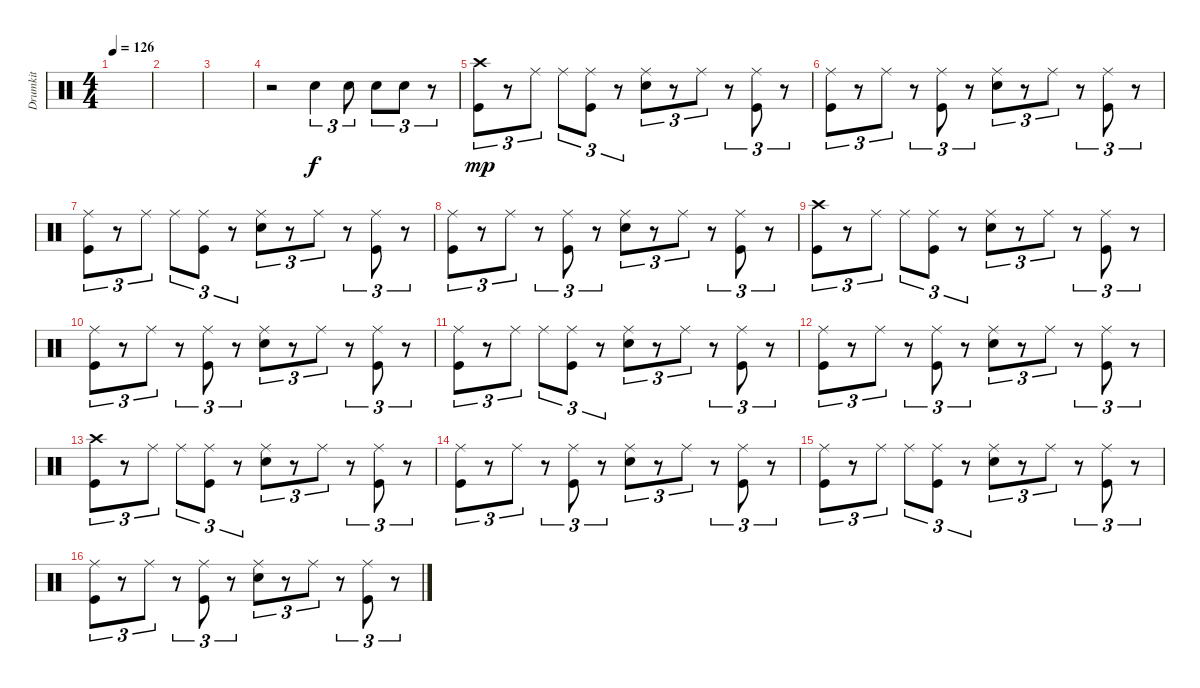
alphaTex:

\track ("Drumkit" "Drumkit") {instrument percussion}
\staff {score}
\articulation defaults
\ts (4 4)
\tempo 126
\clef neutral
\ks c
|
|
|
r.2 "Snare (hit) 2".4{tu (3 2)} "Snare (hit) 2".8{tu (3 2)} "Snare (hit) 2".8{tu (3 2)} "Snare (hit) 2".8{tu (3 2)} r.8{tu (3 2)} |
("Crash high (hit)" "Kick (hit)").8{tu (3 2) dy mp} r.8{tu (3 2)} "Ride (middle)".8{tu (3 2)} "Ride (middle)".8{tu (3 2)} ("Kick (hit)" "Ride (middle)").8{tu (3 2)} r.8{tu (3 2)} ("Snare (hit) 2" "Ride (middle)").8{tu (3 2)} r.8{tu (3 2)} "Ride (middle)".8{tu (3 2)} r.8{tu (3 2)} ("Kick (hit)" "Ride (middle)").8{tu (3 2)} r.8{tu (3 2)} |
("Ride (middle)" "Kick (hit)").8{tu (3 2)} r.8{tu (3 2)} "Ride (middle)".8{tu (3 2)} r.8{tu (3 2)} ("Ride (middle)" "Kick (hit)").8{tu (3 2)} r.8{tu (3 2)} ("Ride (middle)" "Snare (hit) 2").8{tu (3 2)} r.8{tu (3 2)} "Ride (middle)".8{tu (3 2)} r.8{tu (3 2)} ("Ride (middle)" "Kick (hit)").8{tu (3 2)} r.8{tu (3 2)} |
("Ride (middle)" "Kick (hit)").8{tu (3 2)} r.8{tu (3 2)} "Ride (middle)".8{tu (3 2)} "Ride (middle)".8{tu (3 2)} ("Kick (hit)" "Ride (middle)").8{tu (3 2)} r.8{tu (3 2)} ("Snare (hit) 2" "Ride (middle)").8{tu (3 2)} r.8{tu (3 2)} "Ride (middle)".8{tu (3 2)} r.8{tu (3 2)} ("Kick (hit)" "Ride (middle)").8{tu (3 2)} r.8{tu (3 2)} |
("Ride (middle)" "Kick (hit)").8{tu (3 2)} r.8{tu (3 2)} "Ride (middle)".8{tu (3 2)} r.8{tu (3 2)} ("Ride (middle)" "Kick (hit)").8{tu (3 2)} r.8{tu (3 2)} ("Ride (middle)" "Snare (hit) 2").8{tu (3 2)} r.8{tu (3 2)} "Ride (middle)".8{tu (3 2)} r.8{tu (3 2)} ("Ride (middle)" "Kick (hit)").8{tu (3 2)} r.8{tu (3 2)} |
("Crash high (hit)" "Kick (hit)").8{tu (3 2)} r.8{tu (3 2)} "Ride (middle)".8{tu (3 2)} "Ride (middle)".8{tu (3 2)} ("Kick (hit)" "Ride (middle)").8{tu (3 2)} r.8{tu (3 2)} ("Snare (hit) 2" "Ride (middle)").8{tu (3 2)} r.8{tu (3 2)} "Ride (middle)".8{tu (3 2)} r.8{tu (3 2)} ("Kick (hit)" "Ride (middle)").8{tu (3 2)} r.8{tu (3 2)} |
("Ride (middle)" "Kick (hit)").8{tu (3 2)} r.8{tu (3 2)} "Ride (middle)".8{tu (3 2)} r.8{tu (3 2)} ("Ride (middle)" "Kick (hit)").8{tu (3 2)} r.8{tu (3 2)} ("Ride (middle)" "Snare (hit) 2").8{tu (3 2)} r.8{tu (3 2)} "Ride (middle)".8{tu (3 2)} r.8{tu (3 2)} ("Ride (middle)" "Kick (hit)").8{tu (3 2)} r.8{tu (3 2)} |
("Ride (middle)" "Kick (hit)").8{tu (3 2)} r.8{tu (3 2)} "Ride (middle)".8{tu (3 2)} "Ride (middle)".8{tu (3 2)} ("Kick (hit)" "Ride (middle)").8{tu (3 2)} r.8{tu (3 2)} ("Snare (hit) 2" "Ride (middle)").8{tu (3 2)} r.8{tu (3 2)} "Ride (middle)".8{tu (3 2)} r.8{tu (3 2)} ("Kick (hit)" "Ride (middle)").8{tu (3 2)} r.8{tu (3 2)} |
("Ride (middle)" "Kick (hit)").8{tu (3 2)} r.8{tu (3 2)} "Ride (middle)".8{tu (3 2)} r.8{tu (3 2)} ("Ride (middle)" "Kick (hit)").8{tu (3 2)} r.8{tu (3 2)} ("Ride (middle)" "Snare (hit) 2").8{tu (3 2)} r.8{tu (3 2)} "Ride (middle)".8{tu (3 2)} r.8{tu (3 2)} ("Ride (middle)" "Kick (hit)").8{tu (3 2)} r.8{tu (3 2)} |
("Crash high (hit)" "Kick (hit)").8{tu (3 2)} r.8{tu (3 2)} "Ride (middle)".8{tu (3 2)} "Ride (middle)".8{tu (3 2)} ("Kick (hit)" "Ride (middle)").8{tu (3 2)} r.8{tu (3 2)} ("Snare (hit) 2" "Ride (middle)").8{tu (3 2)} r.8{tu (3 2)} "Ride (middle)".8{tu (3 2)} r.8{tu (3 2)} ("Kick (hit)" "Ride (middle)").8{tu (3 2)} r.8{tu (3 2)} |
("Ride (middle)" "Kick (hit)").8{tu (3 2)} r.8{tu (3 2)} "Ride (middle)".8{tu (3 2)} r.8{tu (3 2)} ("Ride (middle)" "Kick (hit)").8{tu (3 2)} r.8{tu (3 2)} ("Ride (middle)" "Snare (hit) 2").8{tu (3 2)} r.8{tu (3 2)} "Ride (middle)".8{tu (3 2)} r.8{tu (3 2)} ("Ride (middle)" "Kick (hit)").8{tu (3 2)} r.8{tu (3 2)} |
("Ride (middle)" "Kick (hit)").8{tu (3 2)} r.8{tu (3 2)} "Ride (middle)".8{tu (3 2)} "Ride (middle)".8{tu (3 2)} ("Kick (hit)" "Ride (middle)").8{tu (3 2)} r.8{tu (3 2)} ("Snare (hit) 2" "Ride (middle)").8{tu (3 2)} r.8{tu (3 2)} "Ride (middle)".8{tu (3 2)} r.8{tu (3 2)} ("Kick (hit)" "Ride (middle)").8{tu (3 2)} r.8{tu (3 2)} |
("Ride (middle)" "Kick (hit)").8{tu (3 2)} r.8{tu (3 2)} "Ride (middle)".8{tu (3 2)} r.8{tu (3 2)} ("Ride (middle)" "Kick (hit)").8{tu (3 2)} r.8{tu (3 2)} ("Ride (middle)" "Snare (hit) 2").8{tu (3 2)} r.8{tu (3 2)} "Ride (middle)".8{tu (3 2)} r.8{tu (3 2)} ("Ride (middle)" "Kick (hit)").8{tu (3 2)} r.8{tu (3 2)}
